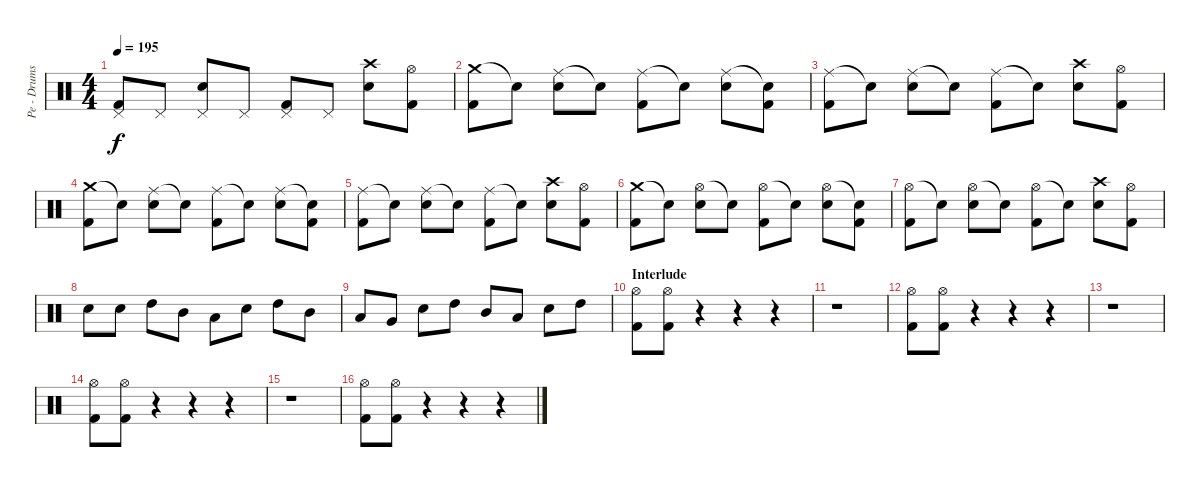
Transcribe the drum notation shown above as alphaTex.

\track ("Pe - Drums" "Pe - Drums") {instrument percussion}
\staff {score}
\articulation defaults
\ts (4 4)
\tempo 195
\clef neutral
\ks c
("Pedal Hi-Hat (hit)" "Kick (hit) 2").8{dy f} "Pedal Hi-Hat (hit)".8 ("Pedal Hi-Hat (hit)" "Electric Snare (hit)").8 "Pedal Hi-Hat (hit)".8 ("Pedal Hi-Hat (hit)" "Kick (hit) 2").8 "Pedal Hi-Hat (hit)".8 ("Crash high (hit)" "Electric Snare (hit)").8 ("Hi-Hat (open)" "Kick (hit) 2").8 |
("Crash medium (hit)" "Kick (hit) 2").8 "Snare (hit)"{t}.8 ("Ride (middle)" "Electric Snare (hit)").8 "Snare (hit)"{t}.8 ("Ride (middle)" "Kick (hit) 2").8 "Snare (hit)"{t}.8 ("Ride (middle)" "Electric Snare (hit)").8 ("Snare (hit)"{t} "Kick (hit) 2").8 |
("Ride (middle)" "Kick (hit) 2").8 "Snare (hit)"{t}.8 ("Ride (middle)" "Electric Snare (hit)").8 "Snare (hit)"{t}.8 ("Ride (middle)" "Kick (hit) 2").8 "Snare (hit)"{t}.8 ("Crash high (hit)" "Electric Snare (hit)").8 ("Hi-Hat (open)" "Kick (hit) 2").8 |
("Crash medium (hit)" "Kick (hit) 2").8 "Snare (hit)"{t}.8 ("Ride (middle)" "Electric Snare (hit)").8 "Snare (hit)"{t}.8 ("Ride (middle)" "Kick (hit) 2").8 "Snare (hit)"{t}.8 ("Ride (middle)" "Electric Snare (hit)").8 ("Snare (hit)"{t} "Kick (hit) 2").8 |
("Ride (middle)" "Kick (hit) 2").8 "Snare (hit)"{t}.8 ("Ride (middle)" "Electric Snare (hit)").8 "Snare (hit)"{t}.8 ("Ride (middle)" "Kick (hit) 2").8 "Snare (hit)"{t}.8 ("Crash high (hit)" "Electric Snare (hit)").8 ("Hi-Hat (open)" "Kick (hit) 2").8 |
("Crash medium (hit)" "Kick (hit) 2").8 "Snare (hit)"{t}.8 ("Hi-Hat (open)" "Electric Snare (hit)").8 "Snare (hit)"{t}.8 ("Hi-Hat (open)" "Kick (hit) 2").8 "Snare (hit)"{t}.8 ("Hi-Hat (open)" "Electric Snare (hit)").8 ("Snare (hit)"{t} "Kick (hit) 2").8 |
("Hi-Hat (open)" "Kick (hit) 2").8 "Snare (hit)"{t}.8 ("Hi-Hat (open)" "Electric Snare (hit)").8 "Snare (hit)"{t}.8 ("Hi-Hat (open)" "Kick (hit) 2").8 "Snare (hit)"{t}.8 ("Crash high (hit)" "Electric Snare (hit)").8 ("Hi-Hat (open)" "Kick (hit) 2").8 |
"Electric Snare (hit)".8 "Electric Snare (hit)".8 "High Tom (hit)".8 "Mid Tom (hit)".8 "Low Tom (hit)".8 "Electric Snare (hit)".8 "High Tom (hit)".8 "Mid Tom (hit)".8 |
"Low Tom (hit)".8 "Very Low Tom (hit)".8 "Electric Snare (hit)".8 "High Tom (hit)".8 "Mid Tom (hit)".8 "Low Tom (hit)".8 "Electric Snare (hit)".8 "High Tom (hit)".8 |
\section ("" "Interlude")
("Hi-Hat (open)" "Kick (hit) 2").8 ("Hi-Hat (open)" "Kick (hit) 2").8 r.4{volume 0} r.4 r.4 |
r.1 |
("Hi-Hat (open)" "Kick (hit) 2").8{volume 13} ("Hi-Hat (open)" "Kick (hit) 2").8 r.4{volume 0} r.4 r.4 |
r.1 |
("Hi-Hat (open)" "Kick (hit) 2").8{volume 13} ("Hi-Hat (open)" "Kick (hit) 2").8 r.4{volume 0} r.4 r.4 |
r.1 |
("Hi-Hat (open)" "Kick (hit) 2").8{volume 13} ("Hi-Hat (open)" "Kick (hit) 2").8 r.4{volume 0} r.4 r.4
